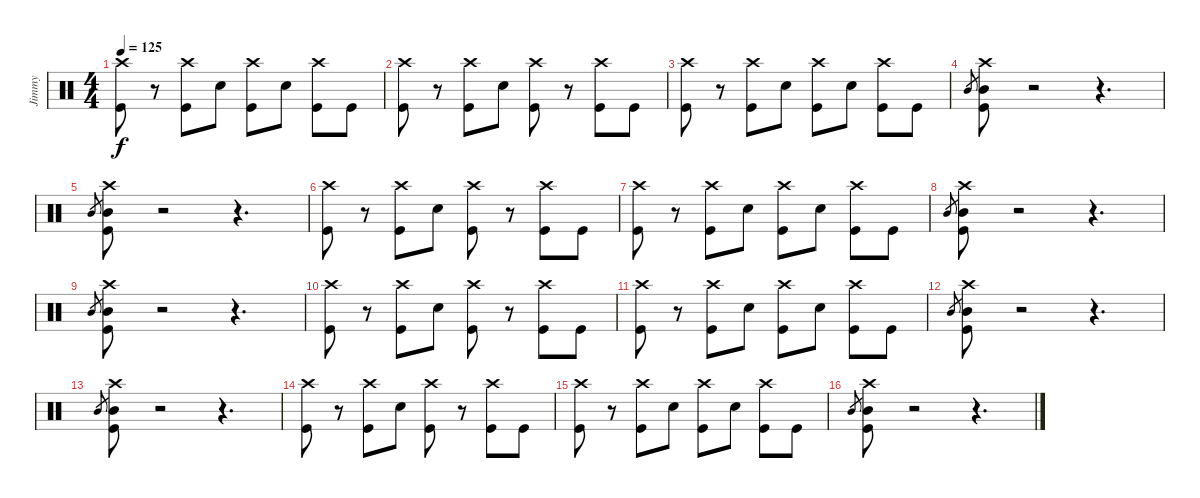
\track ("Jimmy" "Jimmy") {instrument percussion}
\staff {score}
\articulation defaults
\ts (4 4)
\tempo 125
\clef neutral
\ks c
("Crash high (hit)" "Kick (hit)").8{dy f} r.8 ("Crash high (hit)" "Kick (hit)").8 "Electric Snare (hit)".8 ("Crash high (hit)" "Kick (hit)").8 "Electric Snare (hit)".8 ("Crash high (hit)" "Kick (hit)").8 "Kick (hit)".8 |
("Crash high (hit)" "Kick (hit)").8 r.8 ("Crash high (hit)" "Kick (hit)").8 "Electric Snare (hit)".8 ("Crash high (hit)" "Kick (hit)").8 r.8 ("Crash high (hit)" "Kick (hit)").8 "Kick (hit)".8 |
("Crash high (hit)" "Kick (hit)").8 r.8 ("Crash high (hit)" "Kick (hit)").8 "Electric Snare (hit)".8 ("Crash high (hit)" "Kick (hit)").8 "Electric Snare (hit)".8 ("Crash high (hit)" "Kick (hit)").8 "Kick (hit)".8 |
"Mid Tom (hit)".8{gr} ("Crash high (hit)" "Kick (hit)" "Mid Tom (hit)").8 r.2 r.4{d} |
"Mid Tom (hit)".8{gr} ("Crash high (hit)" "Kick (hit)" "Mid Tom (hit)").8 r.2 r.4{d} |
("Crash high (hit)" "Kick (hit)").8 r.8 ("Crash high (hit)" "Kick (hit)").8 "Electric Snare (hit)".8 ("Crash high (hit)" "Kick (hit)").8 r.8 ("Crash high (hit)" "Kick (hit)").8 "Kick (hit)".8 |
("Crash high (hit)" "Kick (hit)").8 r.8 ("Crash high (hit)" "Kick (hit)").8 "Electric Snare (hit)".8 ("Crash high (hit)" "Kick (hit)").8 "Electric Snare (hit)".8 ("Crash high (hit)" "Kick (hit)").8 "Kick (hit)".8 |
"Mid Tom (hit)".8{gr} ("Crash high (hit)" "Kick (hit)" "Mid Tom (hit)").8 r.2 r.4{d} |
"Mid Tom (hit)".8{gr} ("Crash high (hit)" "Kick (hit)" "Mid Tom (hit)").8 r.2 r.4{d} |
("Crash high (hit)" "Kick (hit)").8 r.8 ("Crash high (hit)" "Kick (hit)").8 "Electric Snare (hit)".8 ("Crash high (hit)" "Kick (hit)").8 r.8 ("Crash high (hit)" "Kick (hit)").8 "Kick (hit)".8 |
("Crash high (hit)" "Kick (hit)").8 r.8 ("Crash high (hit)" "Kick (hit)").8 "Electric Snare (hit)".8 ("Crash high (hit)" "Kick (hit)").8 "Electric Snare (hit)".8 ("Crash high (hit)" "Kick (hit)").8 "Kick (hit)".8 |
"Mid Tom (hit)".8{gr} ("Crash high (hit)" "Kick (hit)" "Mid Tom (hit)").8 r.2 r.4{d} |
"Mid Tom (hit)".8{gr} ("Crash high (hit)" "Kick (hit)" "Mid Tom (hit)").8 r.2 r.4{d} |
("Crash high (hit)" "Kick (hit)").8 r.8 ("Crash high (hit)" "Kick (hit)").8 "Electric Snare (hit)".8 ("Crash high (hit)" "Kick (hit)").8 r.8 ("Crash high (hit)" "Kick (hit)").8 "Kick (hit)".8 |
("Crash high (hit)" "Kick (hit)").8 r.8 ("Crash high (hit)" "Kick (hit)").8 "Electric Snare (hit)".8 ("Crash high (hit)" "Kick (hit)").8 "Electric Snare (hit)".8 ("Crash high (hit)" "Kick (hit)").8 "Kick (hit)".8 |
"Mid Tom (hit)".8{gr} ("Crash high (hit)" "Kick (hit)" "Mid Tom (hit)").8 r.2 r.4{d}
